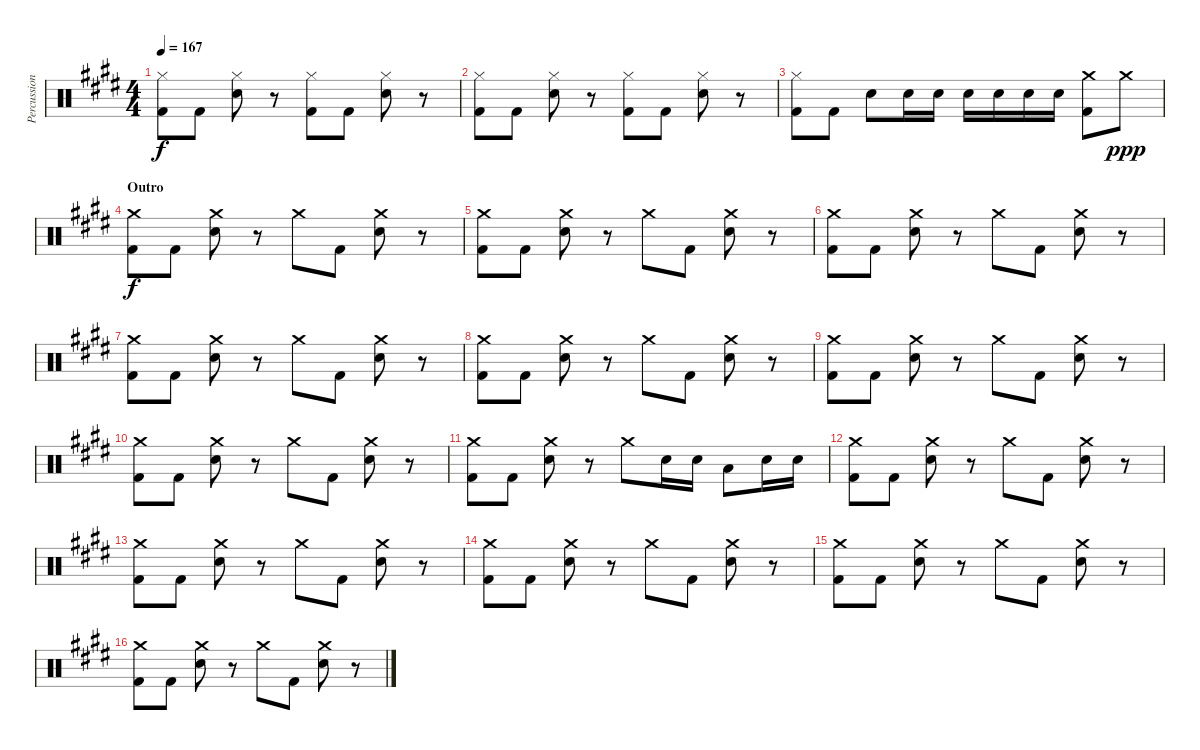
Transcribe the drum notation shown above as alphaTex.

\track ("Percussion" "Percussion") {instrument percussion}
\staff {score}
\articulation defaults
\ts (4 4)
\tempo 167
\clef neutral
\ks e
("Hi-Hat (closed)" "Kick (hit) 2").8{dy f} "Kick (hit) 2".8 ("Hi-Hat (closed)" "Electric Snare (hit)").8 r.8 ("Hi-Hat (closed)" "Kick (hit) 2").8 "Kick (hit) 2".8 ("Hi-Hat (closed)" "Electric Snare (hit)").8 r.8 |
("Hi-Hat (closed)" "Kick (hit) 2").8 "Kick (hit) 2".8 ("Hi-Hat (closed)" "Electric Snare (hit)").8 r.8 ("Hi-Hat (closed)" "Kick (hit) 2").8 "Kick (hit) 2".8 ("Hi-Hat (closed)" "Electric Snare (hit)").8 r.8 |
("Hi-Hat (closed)" "Kick (hit) 2").8 "Kick (hit) 2".8 "Electric Snare (hit)".8 "Electric Snare (hit)".16 "Electric Snare (hit)".16 "Electric Snare (hit)".16 "Electric Snare (hit)".16 "Electric Snare (hit)".16 "Electric Snare (hit)".16 ("Crash medium (hit)" "Kick (hit) 2").8 "Crash medium (hit)".8{dy ppp} |
\section ("" "Outro")
("Crash medium (hit)" "Kick (hit) 2").8{dy f} "Kick (hit) 2".8 ("Crash medium (hit)" "Electric Snare (hit)").8 r.8 "Crash medium (hit)".8 "Kick (hit) 2".8 ("Crash medium (hit)" "Electric Snare (hit)").8 r.8 |
("Crash medium (hit)" "Kick (hit) 2").8 "Kick (hit) 2".8 ("Crash medium (hit)" "Electric Snare (hit)").8 r.8 "Crash medium (hit)".8 "Kick (hit) 2".8 ("Crash medium (hit)" "Electric Snare (hit)").8 r.8 |
("Crash medium (hit)" "Kick (hit) 2").8 "Kick (hit) 2".8 ("Crash medium (hit)" "Electric Snare (hit)").8 r.8 "Crash medium (hit)".8 "Kick (hit) 2".8 ("Crash medium (hit)" "Electric Snare (hit)").8 r.8 |
("Crash medium (hit)" "Kick (hit) 2").8 "Kick (hit) 2".8 ("Crash medium (hit)" "Electric Snare (hit)").8 r.8 "Crash medium (hit)".8 "Kick (hit) 2".8 ("Crash medium (hit)" "Electric Snare (hit)").8 r.8 |
("Crash medium (hit)" "Kick (hit) 2").8 "Kick (hit) 2".8 ("Crash medium (hit)" "Electric Snare (hit)").8 r.8 "Crash medium (hit)".8 "Kick (hit) 2".8 ("Crash medium (hit)" "Electric Snare (hit)").8 r.8 |
("Crash medium (hit)" "Kick (hit) 2").8 "Kick (hit) 2".8 ("Crash medium (hit)" "Electric Snare (hit)").8 r.8 "Crash medium (hit)".8 "Kick (hit) 2".8 ("Crash medium (hit)" "Electric Snare (hit)").8 r.8 |
("Crash medium (hit)" "Kick (hit) 2").8 "Kick (hit) 2".8 ("Crash medium (hit)" "Electric Snare (hit)").8 r.8 "Crash medium (hit)".8 "Kick (hit) 2".8 ("Crash medium (hit)" "Electric Snare (hit)").8 r.8 |
("Crash medium (hit)" "Kick (hit) 2").8 "Kick (hit) 2".8 ("Crash medium (hit)" "Electric Snare (hit)").8 r.8 "Crash medium (hit)".8 "Electric Snare (hit)".16 "Electric Snare (hit)".16 "Low Floor Tom (hit)".8 "Electric Snare (hit)".16 "Electric Snare (hit)".16 |
("Crash medium (hit)" "Kick (hit) 2").8 "Kick (hit) 2".8 ("Crash medium (hit)" "Electric Snare (hit)").8 r.8 "Crash medium (hit)".8 "Kick (hit) 2".8 ("Crash medium (hit)" "Electric Snare (hit)").8 r.8 |
("Crash medium (hit)" "Kick (hit) 2").8 "Kick (hit) 2".8 ("Crash medium (hit)" "Electric Snare (hit)").8 r.8 "Crash medium (hit)".8 "Kick (hit) 2".8 ("Crash medium (hit)" "Electric Snare (hit)").8 r.8 |
("Crash medium (hit)" "Kick (hit) 2").8 "Kick (hit) 2".8 ("Crash medium (hit)" "Electric Snare (hit)").8 r.8 "Crash medium (hit)".8 "Kick (hit) 2".8 ("Crash medium (hit)" "Electric Snare (hit)").8 r.8 |
("Crash medium (hit)" "Kick (hit) 2").8 "Kick (hit) 2".8 ("Crash medium (hit)" "Electric Snare (hit)").8 r.8 "Crash medium (hit)".8 "Kick (hit) 2".8 ("Crash medium (hit)" "Electric Snare (hit)").8 r.8 |
("Crash medium (hit)" "Kick (hit) 2").8 "Kick (hit) 2".8 ("Crash medium (hit)" "Electric Snare (hit)").8 r.8 "Crash medium (hit)".8 "Kick (hit) 2".8 ("Crash medium (hit)" "Electric Snare (hit)").8 r.8
